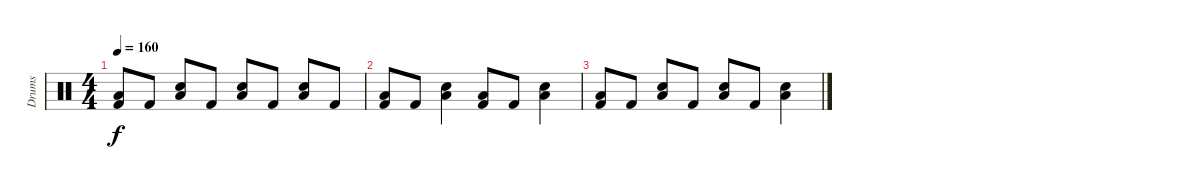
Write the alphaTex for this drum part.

\track ("Drums" "Drums") {instrument percussion}
\staff {score}
\articulation defaults
\ts (4 4)
\tempo 160
\clef neutral
\ks c
("Low Floor Tom (hit)" "Kick (hit) 2").8{dy f} "Kick (hit) 2".8 ("Low Floor Tom (hit)" "Electric Snare (hit)").8 "Kick (hit) 2".8 ("Low Floor Tom (hit)" "Electric Snare (hit)").8 "Kick (hit) 2".8 ("Low Floor Tom (hit)" "Electric Snare (hit)").8 "Kick (hit) 2".8 |
("Low Floor Tom (hit)" "Kick (hit) 2").8 "Kick (hit) 2".8 ("Low Floor Tom (hit)" "Electric Snare (hit)").4 ("Low Floor Tom (hit)" "Kick (hit) 2").8 "Kick (hit) 2".8 ("Low Floor Tom (hit)" "Electric Snare (hit)").4 |
("Low Floor Tom (hit)" "Kick (hit) 2").8 "Kick (hit) 2".8 ("Low Floor Tom (hit)" "Electric Snare (hit)").8 "Kick (hit) 2".8 ("Low Floor Tom (hit)" "Electric Snare (hit)").8 "Kick (hit) 2".8 ("Low Floor Tom (hit)" "Electric Snare (hit)").4
